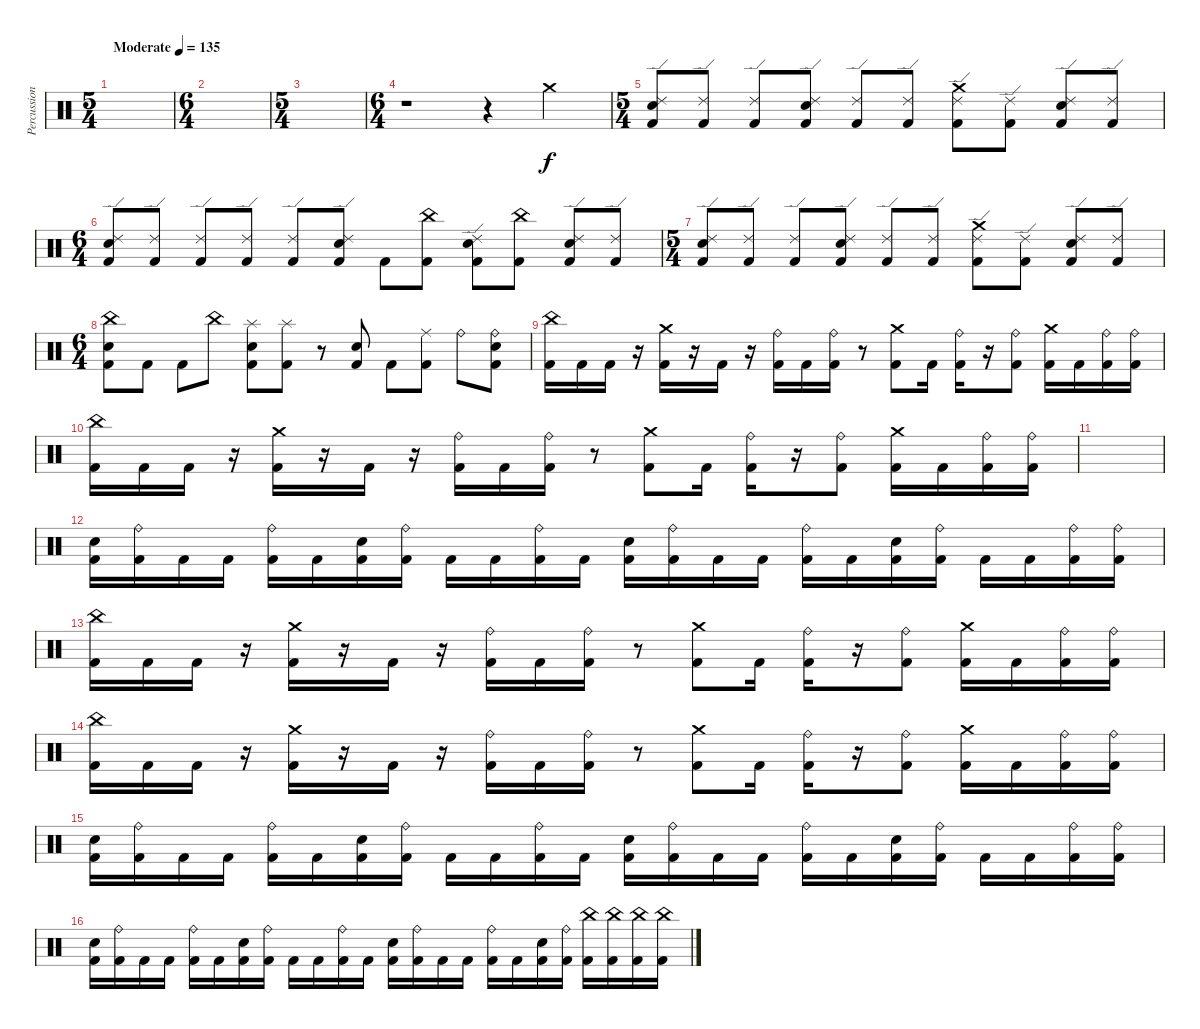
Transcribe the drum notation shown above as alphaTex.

\track ("Percussion" "Percussion") {instrument percussion}
\staff {score}
\articulation defaults
\ts (5 4)
\tempo (135 "Moderate")
\clef neutral
\ks c
|
\ts (6 4)
|
\ts (5 4)
|
\ts (6 4)
r.1 r.4 "Crash medium (hit)".4 |
\ts (5 4)
("Ride (edge) 2" "Electric Snare (hit)" "Kick (hit) 2").8 ("Ride (edge) 2" "Kick (hit) 2").8 ("Ride (edge) 2" "Kick (hit) 2").8 ("Ride (edge) 2" "Electric Snare (hit)" "Kick (hit) 2").8 ("Ride (edge) 2" "Kick (hit) 2").8 ("Ride (edge) 2" "Kick (hit) 2").8 ("Ride (edge) 2" "Crash medium (hit)" "Kick (hit) 2").8 ("Ride (edge) 2" "Kick (hit) 2").8 ("Ride (edge) 2" "Electric Snare (hit)" "Kick (hit) 2").8 ("Ride (edge) 2" "Kick (hit) 2").8 |
\ts (6 4)
("Ride (edge) 2" "Electric Snare (hit)" "Kick (hit) 2").8 ("Ride (edge) 2" "Kick (hit) 2").8 ("Ride (edge) 2" "Kick (hit) 2").8 ("Ride (edge) 2" "Kick (hit) 2").8 ("Ride (edge) 2" "Kick (hit) 2").8 ("Ride (edge) 2" "Electric Snare (hit)" "Kick (hit) 2").8 "Kick (hit) 2".8 ("China (hit)" "Kick (hit) 2").8 ("Ride (edge) 2" "Electric Snare (hit)" "Kick (hit) 2").8 ("China (hit)" "Kick (hit) 2").8 ("Ride (edge) 2" "Electric Snare (hit)" "Kick (hit) 2").8 ("Ride (edge) 2" "Kick (hit) 2").8 |
\ts (5 4)
("Ride (edge) 2" "Electric Snare (hit)" "Kick (hit) 2").8 ("Ride (edge) 2" "Kick (hit) 2").8 ("Ride (edge) 2" "Kick (hit) 2").8 ("Ride (edge) 2" "Electric Snare (hit)" "Kick (hit) 2").8 ("Ride (edge) 2" "Kick (hit) 2").8 ("Ride (edge) 2" "Kick (hit) 2").8 ("Ride (edge) 2" "Crash medium (hit)" "Kick (hit) 2").8 ("Ride (edge) 2" "Kick (hit) 2").8 ("Ride (edge) 2" "Electric Snare (hit)" "Kick (hit) 2").8 ("Ride (edge) 2" "Kick (hit) 2").8 |
\ts (6 4)
("China (hit)" "Electric Snare (hit)" "Kick (hit) 2").8 "Kick (hit) 2".8 "Kick (hit) 2".8 "China (hit)".8 ("Splash (hit)" "Electric Snare (hit)" "Kick (hit) 2").8 ("Splash (hit)" "Kick (hit) 2").8 r.8 ("Electric Snare (hit)" "Kick (hit) 2").8 "Kick (hit) 2".8 ("Ride (middle)" "Kick (hit) 2").8 "Ride (bell)".8 ("Ride (bell)" "Electric Snare (hit)" "Kick (hit) 2").8 |
("China (hit)" "Kick (hit) 2").16 "Kick (hit) 2".16 "Kick (hit) 2".16 r.16 ("Crash medium (hit)" "Kick (hit) 2").16 r.16 "Kick (hit) 2".16 r.16 ("Ride (bell)" "Kick (hit) 2").16 "Kick (hit) 2".16 ("Ride (bell)" "Kick (hit) 2").16 r.8 ("Crash medium (hit)" "Kick (hit) 2").8 "Kick (hit) 2".16 ("Ride (bell)" "Kick (hit) 2").16 r.16 ("Ride (bell)" "Kick (hit) 2").8 ("Crash medium (hit)" "Kick (hit) 2").16 "Kick (hit) 2".16 ("Ride (bell)" "Kick (hit) 2").16 ("Ride (bell)" "Kick (hit) 2").16 |
("China (hit)" "Kick (hit) 2").16 "Kick (hit) 2".16 "Kick (hit) 2".16 r.16 ("Crash medium (hit)" "Kick (hit) 2").16 r.16 "Kick (hit) 2".16 r.16 ("Ride (bell)" "Kick (hit) 2").16 "Kick (hit) 2".16 ("Ride (bell)" "Kick (hit) 2").16 r.8 ("Crash medium (hit)" "Kick (hit) 2").8 "Kick (hit) 2".16 ("Ride (bell)" "Kick (hit) 2").16 r.16 ("Ride (bell)" "Kick (hit) 2").8 ("Crash medium (hit)" "Kick (hit) 2").16 "Kick (hit) 2".16 ("Ride (bell)" "Kick (hit) 2").16 ("Ride (bell)" "Kick (hit) 2").16 |
|
("Electric Snare (hit)" "Kick (hit) 2").16 ("Ride (bell)" "Kick (hit) 2").16 "Kick (hit) 2".16 "Kick (hit) 2".16 ("Ride (bell)" "Kick (hit) 2").16 "Kick (hit) 2".16 ("Electric Snare (hit)" "Kick (hit) 2").16 ("Ride (bell)" "Kick (hit) 2").16 "Kick (hit) 2".16 "Kick (hit) 2".16 ("Ride (bell)" "Kick (hit) 2").16 "Kick (hit) 2".16 ("Electric Snare (hit)" "Kick (hit) 2").16 ("Ride (bell)" "Kick (hit) 2").16 "Kick (hit) 2".16 "Kick (hit) 2".16 ("Ride (bell)" "Kick (hit) 2").16 "Kick (hit) 2".16 ("Electric Snare (hit)" "Kick (hit) 2").16 ("Ride (bell)" "Kick (hit) 2").16 "Kick (hit) 2".16 "Kick (hit) 2".16 ("Ride (bell)" "Kick (hit) 2").16 ("Ride (bell)" "Kick (hit) 2").16 |
("China (hit)" "Kick (hit) 2").16 "Kick (hit) 2".16 "Kick (hit) 2".16 r.16 ("Crash medium (hit)" "Kick (hit) 2").16 r.16 "Kick (hit) 2".16 r.16 ("Ride (bell)" "Kick (hit) 2").16 "Kick (hit) 2".16 ("Ride (bell)" "Kick (hit) 2").16 r.8 ("Crash medium (hit)" "Kick (hit) 2").8 "Kick (hit) 2".16 ("Ride (bell)" "Kick (hit) 2").16 r.16 ("Ride (bell)" "Kick (hit) 2").8 ("Crash medium (hit)" "Kick (hit) 2").16 "Kick (hit) 2".16 ("Ride (bell)" "Kick (hit) 2").16 ("Ride (bell)" "Kick (hit) 2").16 |
("China (hit)" "Kick (hit) 2").16 "Kick (hit) 2".16 "Kick (hit) 2".16 r.16 ("Crash medium (hit)" "Kick (hit) 2").16 r.16 "Kick (hit) 2".16 r.16 ("Ride (bell)" "Kick (hit) 2").16 "Kick (hit) 2".16 ("Ride (bell)" "Kick (hit) 2").16 r.8 ("Crash medium (hit)" "Kick (hit) 2").8 "Kick (hit) 2".16 ("Ride (bell)" "Kick (hit) 2").16 r.16 ("Ride (bell)" "Kick (hit) 2").8 ("Crash medium (hit)" "Kick (hit) 2").16 "Kick (hit) 2".16 ("Ride (bell)" "Kick (hit) 2").16 ("Ride (bell)" "Kick (hit) 2").16 |
("Electric Snare (hit)" "Kick (hit) 2").16 ("Ride (bell)" "Kick (hit) 2").16 "Kick (hit) 2".16 "Kick (hit) 2".16 ("Ride (bell)" "Kick (hit) 2").16 "Kick (hit) 2".16 ("Electric Snare (hit)" "Kick (hit) 2").16 ("Ride (bell)" "Kick (hit) 2").16 "Kick (hit) 2".16 "Kick (hit) 2".16 ("Ride (bell)" "Kick (hit) 2").16 "Kick (hit) 2".16 ("Electric Snare (hit)" "Kick (hit) 2").16 ("Ride (bell)" "Kick (hit) 2").16 "Kick (hit) 2".16 "Kick (hit) 2".16 ("Ride (bell)" "Kick (hit) 2").16 "Kick (hit) 2".16 ("Electric Snare (hit)" "Kick (hit) 2").16 ("Ride (bell)" "Kick (hit) 2").16 "Kick (hit) 2".16 "Kick (hit) 2".16 ("Ride (bell)" "Kick (hit) 2").16 ("Ride (bell)" "Kick (hit) 2").16 |
("Electric Snare (hit)" "Kick (hit) 2").16 ("Ride (bell)" "Kick (hit) 2").16 "Kick (hit) 2".16 "Kick (hit) 2".16 ("Ride (bell)" "Kick (hit) 2").16 "Kick (hit) 2".16 ("Electric Snare (hit)" "Kick (hit) 2").16 ("Ride (bell)" "Kick (hit) 2").16 "Kick (hit) 2".16 "Kick (hit) 2".16 ("Ride (bell)" "Kick (hit) 2").16 "Kick (hit) 2".16 ("Electric Snare (hit)" "Kick (hit) 2").16 ("Ride (bell)" "Kick (hit) 2").16 "Kick (hit) 2".16 "Kick (hit) 2".16 ("Ride (bell)" "Kick (hit) 2").16 "Kick (hit) 2".16 ("Electric Snare (hit)" "Kick (hit) 2").16 ("Ride (bell)" "Kick (hit) 2").16 ("China (hit)" "Kick (hit) 2").16 ("China (hit)" "Kick (hit) 2").16 ("China (hit)" "Kick (hit) 2").16 ("China (hit)" "Kick (hit) 2").16
